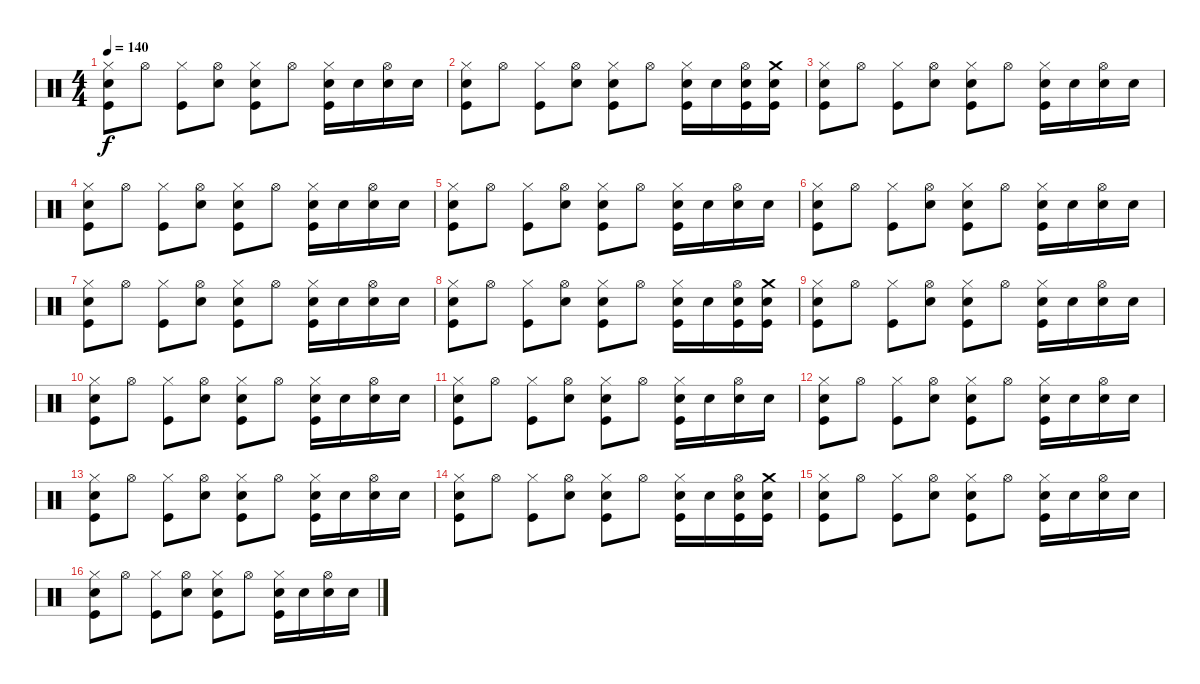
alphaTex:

\track "" {instrument percussion}
\staff {score}
\articulation defaults
\ts (4 4)
\tempo 140
\clef neutral
\ks c
("Snare (hit) 2" "Hi-Hat (closed)" "Kick (hit)").8{dy f} "Hi-Hat (open)".8 ("Hi-Hat (closed)" "Kick (hit)").8 ("Snare (hit) 2" "Hi-Hat (open)").8 ("Snare (hit) 2" "Hi-Hat (closed)" "Kick (hit)").8 "Hi-Hat (open)".8 ("Snare (hit) 2" "Hi-Hat (closed)" "Kick (hit)").16 "Snare (hit) 2".16 ("Snare (hit) 2" "Hi-Hat (open)").16 "Snare (hit) 2".16 |
("Snare (hit) 2" "Hi-Hat (closed)" "Kick (hit)").8 "Hi-Hat (open)".8 ("Hi-Hat (closed)" "Kick (hit)").8 ("Snare (hit) 2" "Hi-Hat (open)").8 ("Snare (hit) 2" "Hi-Hat (closed)" "Kick (hit)").8 "Hi-Hat (open)".8 ("Snare (hit) 2" "Hi-Hat (closed)" "Kick (hit)").16 "Snare (hit) 2".16 ("Kick (hit)" "Snare (hit) 2" "Hi-Hat (open)").16 ("Crash medium (hit)" "Kick (hit)" "Snare (hit) 2").16 |
("Snare (hit) 2" "Hi-Hat (closed)" "Kick (hit)").8 "Hi-Hat (open)".8 ("Hi-Hat (closed)" "Kick (hit)").8 ("Snare (hit) 2" "Hi-Hat (open)").8 ("Snare (hit) 2" "Hi-Hat (closed)" "Kick (hit)").8 "Hi-Hat (open)".8 ("Snare (hit) 2" "Hi-Hat (closed)" "Kick (hit)").16 "Snare (hit) 2".16 ("Snare (hit) 2" "Hi-Hat (open)").16 "Snare (hit) 2".16 |
("Snare (hit) 2" "Hi-Hat (closed)" "Kick (hit)").8 "Hi-Hat (open)".8 ("Hi-Hat (closed)" "Kick (hit)").8 ("Snare (hit) 2" "Hi-Hat (open)").8 ("Snare (hit) 2" "Hi-Hat (closed)" "Kick (hit)").8 "Hi-Hat (open)".8 ("Snare (hit) 2" "Hi-Hat (closed)" "Kick (hit)").16 "Snare (hit) 2".16 ("Snare (hit) 2" "Hi-Hat (open)").16 "Snare (hit) 2".16 |
("Snare (hit) 2" "Hi-Hat (closed)" "Kick (hit)").8 "Hi-Hat (open)".8 ("Hi-Hat (closed)" "Kick (hit)").8 ("Snare (hit) 2" "Hi-Hat (open)").8 ("Snare (hit) 2" "Hi-Hat (closed)" "Kick (hit)").8 "Hi-Hat (open)".8 ("Snare (hit) 2" "Hi-Hat (closed)" "Kick (hit)").16 "Snare (hit) 2".16 ("Snare (hit) 2" "Hi-Hat (open)").16 "Snare (hit) 2".16 |
("Snare (hit) 2" "Hi-Hat (closed)" "Kick (hit)").8 "Hi-Hat (open)".8 ("Hi-Hat (closed)" "Kick (hit)").8 ("Snare (hit) 2" "Hi-Hat (open)").8 ("Snare (hit) 2" "Hi-Hat (closed)" "Kick (hit)").8 "Hi-Hat (open)".8 ("Snare (hit) 2" "Hi-Hat (closed)" "Kick (hit)").16 "Snare (hit) 2".16 ("Snare (hit) 2" "Hi-Hat (open)").16 "Snare (hit) 2".16 |
("Snare (hit) 2" "Hi-Hat (closed)" "Kick (hit)").8 "Hi-Hat (open)".8 ("Hi-Hat (closed)" "Kick (hit)").8 ("Snare (hit) 2" "Hi-Hat (open)").8 ("Snare (hit) 2" "Hi-Hat (closed)" "Kick (hit)").8 "Hi-Hat (open)".8 ("Snare (hit) 2" "Hi-Hat (closed)" "Kick (hit)").16 "Snare (hit) 2".16 ("Snare (hit) 2" "Hi-Hat (open)").16 "Snare (hit) 2".16 |
("Snare (hit) 2" "Hi-Hat (closed)" "Kick (hit)").8 "Hi-Hat (open)".8 ("Hi-Hat (closed)" "Kick (hit)").8 ("Snare (hit) 2" "Hi-Hat (open)").8 ("Snare (hit) 2" "Hi-Hat (closed)" "Kick (hit)").8 "Hi-Hat (open)".8 ("Snare (hit) 2" "Hi-Hat (closed)" "Kick (hit)").16 "Snare (hit) 2".16 ("Kick (hit)" "Snare (hit) 2" "Hi-Hat (open)").16 ("Crash medium (hit)" "Kick (hit)" "Snare (hit) 2").16 |
("Snare (hit) 2" "Hi-Hat (closed)" "Kick (hit)").8 "Hi-Hat (open)".8 ("Hi-Hat (closed)" "Kick (hit)").8 ("Snare (hit) 2" "Hi-Hat (open)").8 ("Snare (hit) 2" "Hi-Hat (closed)" "Kick (hit)").8 "Hi-Hat (open)".8 ("Snare (hit) 2" "Hi-Hat (closed)" "Kick (hit)").16 "Snare (hit) 2".16 ("Snare (hit) 2" "Hi-Hat (open)").16 "Snare (hit) 2".16 |
("Snare (hit) 2" "Hi-Hat (closed)" "Kick (hit)").8 "Hi-Hat (open)".8 ("Hi-Hat (closed)" "Kick (hit)").8 ("Snare (hit) 2" "Hi-Hat (open)").8 ("Snare (hit) 2" "Hi-Hat (closed)" "Kick (hit)").8 "Hi-Hat (open)".8 ("Snare (hit) 2" "Hi-Hat (closed)" "Kick (hit)").16 "Snare (hit) 2".16 ("Snare (hit) 2" "Hi-Hat (open)").16 "Snare (hit) 2".16 |
("Snare (hit) 2" "Hi-Hat (closed)" "Kick (hit)").8 "Hi-Hat (open)".8 ("Hi-Hat (closed)" "Kick (hit)").8 ("Snare (hit) 2" "Hi-Hat (open)").8 ("Snare (hit) 2" "Hi-Hat (closed)" "Kick (hit)").8 "Hi-Hat (open)".8 ("Snare (hit) 2" "Hi-Hat (closed)" "Kick (hit)").16 "Snare (hit) 2".16 ("Snare (hit) 2" "Hi-Hat (open)").16 "Snare (hit) 2".16 |
("Snare (hit) 2" "Hi-Hat (closed)" "Kick (hit)").8 "Hi-Hat (open)".8 ("Hi-Hat (closed)" "Kick (hit)").8 ("Snare (hit) 2" "Hi-Hat (open)").8 ("Snare (hit) 2" "Hi-Hat (closed)" "Kick (hit)").8 "Hi-Hat (open)".8 ("Snare (hit) 2" "Hi-Hat (closed)" "Kick (hit)").16 "Snare (hit) 2".16 ("Snare (hit) 2" "Hi-Hat (open)").16 "Snare (hit) 2".16 |
("Snare (hit) 2" "Hi-Hat (closed)" "Kick (hit)").8 "Hi-Hat (open)".8 ("Hi-Hat (closed)" "Kick (hit)").8 ("Snare (hit) 2" "Hi-Hat (open)").8 ("Snare (hit) 2" "Hi-Hat (closed)" "Kick (hit)").8 "Hi-Hat (open)".8 ("Snare (hit) 2" "Hi-Hat (closed)" "Kick (hit)").16 "Snare (hit) 2".16 ("Snare (hit) 2" "Hi-Hat (open)").16 "Snare (hit) 2".16 |
("Snare (hit) 2" "Hi-Hat (closed)" "Kick (hit)").8 "Hi-Hat (open)".8 ("Hi-Hat (closed)" "Kick (hit)").8 ("Snare (hit) 2" "Hi-Hat (open)").8 ("Snare (hit) 2" "Hi-Hat (closed)" "Kick (hit)").8 "Hi-Hat (open)".8 ("Snare (hit) 2" "Hi-Hat (closed)" "Kick (hit)").16 "Snare (hit) 2".16 ("Kick (hit)" "Snare (hit) 2" "Hi-Hat (open)").16 ("Crash medium (hit)" "Kick (hit)" "Snare (hit) 2").16 |
("Snare (hit) 2" "Hi-Hat (closed)" "Kick (hit)").8 "Hi-Hat (open)".8 ("Hi-Hat (closed)" "Kick (hit)").8 ("Snare (hit) 2" "Hi-Hat (open)").8 ("Snare (hit) 2" "Hi-Hat (closed)" "Kick (hit)").8 "Hi-Hat (open)".8 ("Snare (hit) 2" "Hi-Hat (closed)" "Kick (hit)").16 "Snare (hit) 2".16 ("Snare (hit) 2" "Hi-Hat (open)").16 "Snare (hit) 2".16 |
("Snare (hit) 2" "Hi-Hat (closed)" "Kick (hit)").8 "Hi-Hat (open)".8 ("Hi-Hat (closed)" "Kick (hit)").8 ("Snare (hit) 2" "Hi-Hat (open)").8 ("Snare (hit) 2" "Hi-Hat (closed)" "Kick (hit)").8 "Hi-Hat (open)".8 ("Snare (hit) 2" "Hi-Hat (closed)" "Kick (hit)").16 "Snare (hit) 2".16 ("Snare (hit) 2" "Hi-Hat (open)").16 "Snare (hit) 2".16
